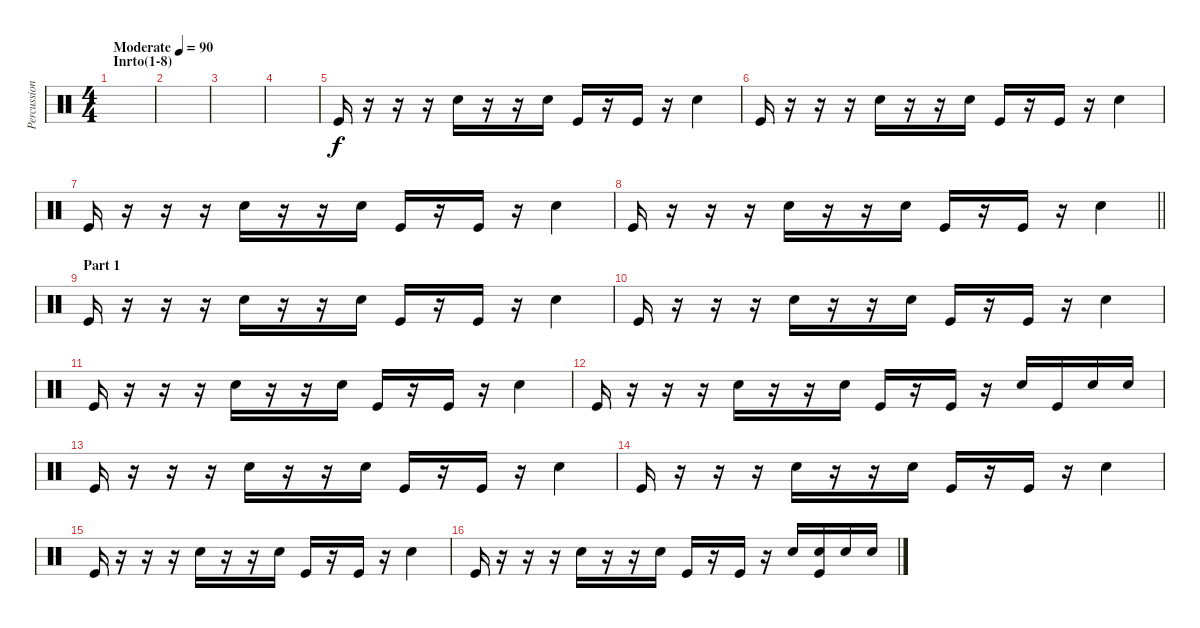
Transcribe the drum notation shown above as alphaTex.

\track ("Percussion" "Percussion") {instrument percussion}
\staff
\articulation defaults
\ts (4 4)
\section ("" "Inrto(1-8)")
\tempo (90 "Moderate")
\clef neutral
\ks c
|
|
|
|
"Kick (hit)".16 r.16 r.16 r.16 "Electric Snare (hit)".16 r.16 r.16 "Electric Snare (hit)".16 "Kick (hit)".16 r.16 "Kick (hit)".16 r.16 "Electric Snare (hit)".4 |
"Kick (hit)".16 r.16 r.16 r.16 "Electric Snare (hit)".16 r.16 r.16 "Electric Snare (hit)".16 "Kick (hit)".16 r.16 "Kick (hit)".16 r.16 "Electric Snare (hit)".4 |
"Kick (hit)".16 r.16 r.16 r.16 "Electric Snare (hit)".16 r.16 r.16 "Electric Snare (hit)".16 "Kick (hit)".16 r.16 "Kick (hit)".16 r.16 "Electric Snare (hit)".4 |
\barLineRight lightlight "Kick (hit)".16
r.16 r.16 r.16 "Electric Snare (hit)".16 r.16 r.16 "Electric Snare (hit)".16 "Kick (hit)".16 r.16 "Kick (hit)".16 r.16 "Electric Snare (hit)".4 |
\section ("" "Part 1")
"Kick (hit)".16 r.16 r.16 r.16 "Electric Snare (hit)".16 r.16 r.16 "Electric Snare (hit)".16 "Kick (hit)".16 r.16 "Kick (hit)".16 r.16 "Electric Snare (hit)".4 |
"Kick (hit)".16 r.16 r.16 r.16 "Electric Snare (hit)".16 r.16 r.16 "Electric Snare (hit)".16 "Kick (hit)".16 r.16 "Kick (hit)".16 r.16 "Electric Snare (hit)".4 |
"Kick (hit)".16 r.16 r.16 r.16 "Electric Snare (hit)".16 r.16 r.16 "Electric Snare (hit)".16 "Kick (hit)".16 r.16 "Kick (hit)".16 r.16 "Electric Snare (hit)".4 |
"Kick (hit)".16 r.16 r.16 r.16 "Electric Snare (hit)".16 r.16 r.16 "Electric Snare (hit)".16 "Kick (hit)".16 r.16 "Kick (hit)".16 r.16 "Electric Snare (hit)".16 "Kick (hit)".16 "Electric Snare (hit)".16 "Electric Snare (hit)".16 |
"Kick (hit)".16 r.16 r.16 r.16 "Electric Snare (hit)".16 r.16 r.16 "Electric Snare (hit)".16 "Kick (hit)".16 r.16 "Kick (hit)".16 r.16 "Electric Snare (hit)".4 |
"Kick (hit)".16 r.16 r.16 r.16 "Electric Snare (hit)".16 r.16 r.16 "Electric Snare (hit)".16 "Kick (hit)".16 r.16 "Kick (hit)".16 r.16 "Electric Snare (hit)".4 |
"Kick (hit)".16 r.16 r.16 r.16 "Electric Snare (hit)".16 r.16 r.16 "Electric Snare (hit)".16 "Kick (hit)".16 r.16 "Kick (hit)".16 r.16 "Electric Snare (hit)".4 |
"Kick (hit)".16 r.16 r.16 r.16 "Electric Snare (hit)".16 r.16 r.16 "Electric Snare (hit)".16 "Kick (hit)".16 r.16 "Kick (hit)".16 r.16 "Electric Snare (hit)".16 ("Kick (hit)" "Electric Snare (hit)").16 "Electric Snare (hit)".16 "Electric Snare (hit)".16
